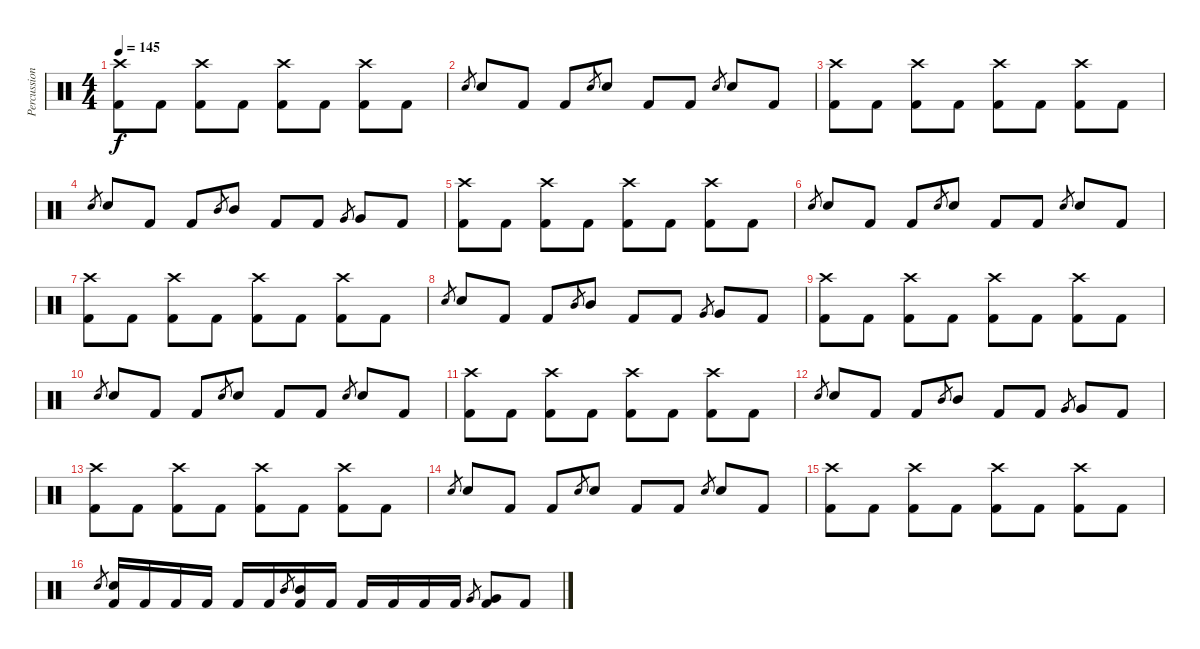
\track ("Percussion" "Percussion") {instrument percussion}
\staff {score}
\articulation defaults
\ts (4 4)
\tempo 145
\clef neutral
\ks c
("Crash high (hit)" "Kick (hit) 2").8{dy f} "Kick (hit) 2".8 ("Crash high (hit)" "Kick (hit) 2").8 "Kick (hit) 2".8 ("Crash high (hit)" "Kick (hit) 2").8 "Kick (hit) 2".8 ("Crash high (hit)" "Kick (hit) 2").8 "Kick (hit) 2".8 |
"Snare (hit) 2".8{gr} "Snare (hit) 2".8 "Kick (hit) 2".8 "Kick (hit) 2".8 "Snare (hit) 2".8{gr} "Snare (hit) 2".8 "Kick (hit) 2".8 "Kick (hit) 2".8 "Snare (hit) 2".8{gr} "Snare (hit) 2".8 "Kick (hit) 2".8 |
("Crash high (hit)" "Kick (hit) 2").8 "Kick (hit) 2".8 ("Crash high (hit)" "Kick (hit) 2").8 "Kick (hit) 2".8 ("Crash high (hit)" "Kick (hit) 2").8 "Kick (hit) 2".8 ("Crash high (hit)" "Kick (hit) 2").8 "Kick (hit) 2".8 |
"Snare (hit) 2".8{gr} "Snare (hit) 2".8 "Kick (hit) 2".8 "Kick (hit) 2".8 "Mid Tom (hit)".8{gr} "Mid Tom (hit)".8 "Kick (hit) 2".8 "Kick (hit) 2".8 "Very Low Tom (hit)".8{gr} "Very Low Tom (hit)".8 "Kick (hit) 2".8 |
("Crash high (hit)" "Kick (hit) 2").8 "Kick (hit) 2".8 ("Crash high (hit)" "Kick (hit) 2").8 "Kick (hit) 2".8 ("Crash high (hit)" "Kick (hit) 2").8 "Kick (hit) 2".8 ("Crash high (hit)" "Kick (hit) 2").8 "Kick (hit) 2".8 |
"Snare (hit) 2".8{gr} "Snare (hit) 2".8 "Kick (hit) 2".8 "Kick (hit) 2".8 "Snare (hit) 2".8{gr} "Snare (hit) 2".8 "Kick (hit) 2".8 "Kick (hit) 2".8 "Snare (hit) 2".8{gr} "Snare (hit) 2".8 "Kick (hit) 2".8 |
("Crash high (hit)" "Kick (hit) 2").8 "Kick (hit) 2".8 ("Crash high (hit)" "Kick (hit) 2").8 "Kick (hit) 2".8 ("Crash high (hit)" "Kick (hit) 2").8 "Kick (hit) 2".8 ("Crash high (hit)" "Kick (hit) 2").8 "Kick (hit) 2".8 |
"Snare (hit) 2".8{gr} "Snare (hit) 2".8 "Kick (hit) 2".8 "Kick (hit) 2".8 "Mid Tom (hit)".8{gr} "Mid Tom (hit)".8 "Kick (hit) 2".8 "Kick (hit) 2".8 "Very Low Tom (hit)".8{gr} "Very Low Tom (hit)".8 "Kick (hit) 2".8 |
("Crash high (hit)" "Kick (hit) 2").8 "Kick (hit) 2".8 ("Crash high (hit)" "Kick (hit) 2").8 "Kick (hit) 2".8 ("Crash high (hit)" "Kick (hit) 2").8 "Kick (hit) 2".8 ("Crash high (hit)" "Kick (hit) 2").8 "Kick (hit) 2".8 |
"Snare (hit) 2".8{gr} "Snare (hit) 2".8 "Kick (hit) 2".8 "Kick (hit) 2".8 "Snare (hit) 2".8{gr} "Snare (hit) 2".8 "Kick (hit) 2".8 "Kick (hit) 2".8 "Snare (hit) 2".8{gr} "Snare (hit) 2".8 "Kick (hit) 2".8 |
("Crash high (hit)" "Kick (hit) 2").8 "Kick (hit) 2".8 ("Crash high (hit)" "Kick (hit) 2").8 "Kick (hit) 2".8 ("Crash high (hit)" "Kick (hit) 2").8 "Kick (hit) 2".8 ("Crash high (hit)" "Kick (hit) 2").8 "Kick (hit) 2".8 |
"Snare (hit) 2".8{gr} "Snare (hit) 2".8 "Kick (hit) 2".8 "Kick (hit) 2".8 "Mid Tom (hit)".8{gr} "Mid Tom (hit)".8 "Kick (hit) 2".8 "Kick (hit) 2".8 "Very Low Tom (hit)".8{gr} "Very Low Tom (hit)".8 "Kick (hit) 2".8 |
("Crash high (hit)" "Kick (hit) 2").8 "Kick (hit) 2".8 ("Crash high (hit)" "Kick (hit) 2").8 "Kick (hit) 2".8 ("Crash high (hit)" "Kick (hit) 2").8 "Kick (hit) 2".8 ("Crash high (hit)" "Kick (hit) 2").8 "Kick (hit) 2".8 |
"Snare (hit) 2".8{gr} "Snare (hit) 2".8 "Kick (hit) 2".8 "Kick (hit) 2".8 "Snare (hit) 2".8{gr} "Snare (hit) 2".8 "Kick (hit) 2".8 "Kick (hit) 2".8 "Snare (hit) 2".8{gr} "Snare (hit) 2".8 "Kick (hit) 2".8 |
("Crash high (hit)" "Kick (hit) 2").8 "Kick (hit) 2".8 ("Crash high (hit)" "Kick (hit) 2").8 "Kick (hit) 2".8 ("Crash high (hit)" "Kick (hit) 2").8 "Kick (hit) 2".8 ("Crash high (hit)" "Kick (hit) 2").8 "Kick (hit) 2".8 |
"Snare (hit) 2".8{gr} ("Snare (hit) 2" "Kick (hit) 2").16 "Kick (hit) 2".16 "Kick (hit) 2".16 "Kick (hit) 2".16 "Kick (hit) 2".16 "Kick (hit) 2".16 "Mid Tom (hit)".8{gr} ("Mid Tom (hit)" "Kick (hit) 2").16 "Kick (hit) 2".16 "Kick (hit) 2".16 "Kick (hit) 2".16 "Kick (hit) 2".16 "Kick (hit) 2".16 "Very Low Tom (hit)".8{gr} ("Very Low Tom (hit)" "Kick (hit) 2").8 "Kick (hit) 2".8
